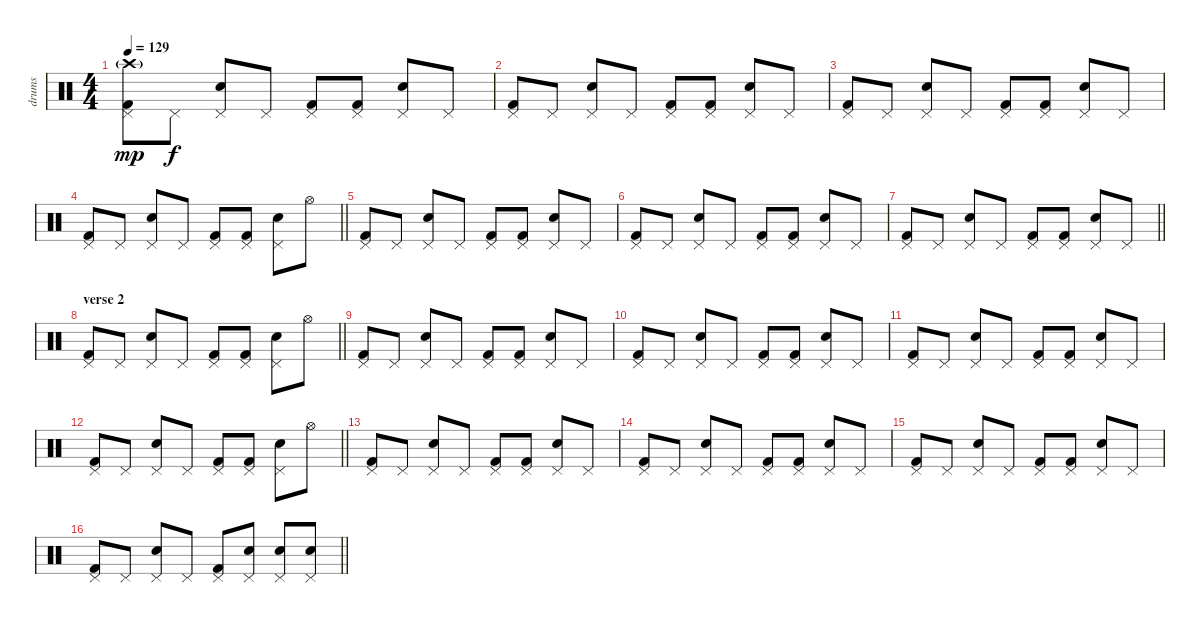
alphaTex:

\track ("drums" "drums") {instrument percussion}
\staff {score}
\articulation defaults
\ts (4 4)
\tempo 129
\clef neutral
\ks c
("Kick (hit) 2" "Pedal Hi-Hat (hit)" "Crash high (hit)"{g}).8{dy mp} "Pedal Hi-Hat (hit)".8{dy f} ("Electric Snare (hit)" "Pedal Hi-Hat (hit)").8 "Pedal Hi-Hat (hit)".8 ("Kick (hit) 2" "Pedal Hi-Hat (hit)").8 ("Kick (hit) 2" "Pedal Hi-Hat (hit)").8 ("Electric Snare (hit)" "Pedal Hi-Hat (hit)").8 "Pedal Hi-Hat (hit)".8 |
("Kick (hit) 2" "Pedal Hi-Hat (hit)").8 "Pedal Hi-Hat (hit)".8 ("Electric Snare (hit)" "Pedal Hi-Hat (hit)").8 "Pedal Hi-Hat (hit)".8 ("Kick (hit) 2" "Pedal Hi-Hat (hit)").8 ("Kick (hit) 2" "Pedal Hi-Hat (hit)").8 ("Electric Snare (hit)" "Pedal Hi-Hat (hit)").8 "Pedal Hi-Hat (hit)".8 |
("Kick (hit) 2" "Pedal Hi-Hat (hit)").8 "Pedal Hi-Hat (hit)".8 ("Electric Snare (hit)" "Pedal Hi-Hat (hit)").8 "Pedal Hi-Hat (hit)".8 ("Kick (hit) 2" "Pedal Hi-Hat (hit)").8 ("Kick (hit) 2" "Pedal Hi-Hat (hit)").8 ("Electric Snare (hit)" "Pedal Hi-Hat (hit)").8 "Pedal Hi-Hat (hit)".8 |
\barLineRight lightlight
("Kick (hit) 2" "Pedal Hi-Hat (hit)").8 "Pedal Hi-Hat (hit)".8 ("Electric Snare (hit)" "Pedal Hi-Hat (hit)").8 "Pedal Hi-Hat (hit)".8 ("Kick (hit) 2" "Pedal Hi-Hat (hit)").8 ("Kick (hit) 2" "Pedal Hi-Hat (hit)").8 ("Electric Snare (hit)" "Pedal Hi-Hat (hit)").8 "Hi-Hat (open)".8 |
("Kick (hit) 2" "Pedal Hi-Hat (hit)").8 "Pedal Hi-Hat (hit)".8 ("Electric Snare (hit)" "Pedal Hi-Hat (hit)").8 "Pedal Hi-Hat (hit)".8 ("Kick (hit) 2" "Pedal Hi-Hat (hit)").8 ("Kick (hit) 2" "Pedal Hi-Hat (hit)").8 ("Electric Snare (hit)" "Pedal Hi-Hat (hit)").8 "Pedal Hi-Hat (hit)".8 |
("Kick (hit) 2" "Pedal Hi-Hat (hit)").8 "Pedal Hi-Hat (hit)".8 ("Electric Snare (hit)" "Pedal Hi-Hat (hit)").8 "Pedal Hi-Hat (hit)".8 ("Kick (hit) 2" "Pedal Hi-Hat (hit)").8 ("Kick (hit) 2" "Pedal Hi-Hat (hit)").8 ("Electric Snare (hit)" "Pedal Hi-Hat (hit)").8 "Pedal Hi-Hat (hit)".8 |
\barLineRight lightlight
("Kick (hit) 2" "Pedal Hi-Hat (hit)").8 "Pedal Hi-Hat (hit)".8 ("Electric Snare (hit)" "Pedal Hi-Hat (hit)").8 "Pedal Hi-Hat (hit)".8 ("Kick (hit) 2" "Pedal Hi-Hat (hit)").8 ("Kick (hit) 2" "Pedal Hi-Hat (hit)").8 ("Electric Snare (hit)" "Pedal Hi-Hat (hit)").8 "Pedal Hi-Hat (hit)".8 |
\section ("" "verse 2")
\barLineRight lightlight
("Kick (hit) 2" "Pedal Hi-Hat (hit)").8 "Pedal Hi-Hat (hit)".8 ("Electric Snare (hit)" "Pedal Hi-Hat (hit)").8 "Pedal Hi-Hat (hit)".8 ("Kick (hit) 2" "Pedal Hi-Hat (hit)").8 ("Kick (hit) 2" "Pedal Hi-Hat (hit)").8 ("Electric Snare (hit)" "Pedal Hi-Hat (hit)").8 "Hi-Hat (open)".8 |
("Kick (hit) 2" "Pedal Hi-Hat (hit)").8 "Pedal Hi-Hat (hit)".8 ("Electric Snare (hit)" "Pedal Hi-Hat (hit)").8 "Pedal Hi-Hat (hit)".8 ("Kick (hit) 2" "Pedal Hi-Hat (hit)").8 ("Kick (hit) 2" "Pedal Hi-Hat (hit)").8 ("Electric Snare (hit)" "Pedal Hi-Hat (hit)").8 "Pedal Hi-Hat (hit)".8 |
("Kick (hit) 2" "Pedal Hi-Hat (hit)").8 "Pedal Hi-Hat (hit)".8 ("Electric Snare (hit)" "Pedal Hi-Hat (hit)").8 "Pedal Hi-Hat (hit)".8 ("Kick (hit) 2" "Pedal Hi-Hat (hit)").8 ("Kick (hit) 2" "Pedal Hi-Hat (hit)").8 ("Electric Snare (hit)" "Pedal Hi-Hat (hit)").8 "Pedal Hi-Hat (hit)".8 |
("Kick (hit) 2" "Pedal Hi-Hat (hit)").8 "Pedal Hi-Hat (hit)".8 ("Electric Snare (hit)" "Pedal Hi-Hat (hit)").8 "Pedal Hi-Hat (hit)".8 ("Kick (hit) 2" "Pedal Hi-Hat (hit)").8 ("Kick (hit) 2" "Pedal Hi-Hat (hit)").8 ("Electric Snare (hit)" "Pedal Hi-Hat (hit)").8 "Pedal Hi-Hat (hit)".8 |
\barLineRight lightlight
("Kick (hit) 2" "Pedal Hi-Hat (hit)").8 "Pedal Hi-Hat (hit)".8 ("Electric Snare (hit)" "Pedal Hi-Hat (hit)").8 "Pedal Hi-Hat (hit)".8 ("Kick (hit) 2" "Pedal Hi-Hat (hit)").8 ("Kick (hit) 2" "Pedal Hi-Hat (hit)").8 ("Electric Snare (hit)" "Pedal Hi-Hat (hit)").8 "Hi-Hat (open)".8 |
("Kick (hit) 2" "Pedal Hi-Hat (hit)").8 "Pedal Hi-Hat (hit)".8 ("Electric Snare (hit)" "Pedal Hi-Hat (hit)").8 "Pedal Hi-Hat (hit)".8 ("Kick (hit) 2" "Pedal Hi-Hat (hit)").8 ("Kick (hit) 2" "Pedal Hi-Hat (hit)").8 ("Electric Snare (hit)" "Pedal Hi-Hat (hit)").8 "Pedal Hi-Hat (hit)".8 |
("Kick (hit) 2" "Pedal Hi-Hat (hit)").8 "Pedal Hi-Hat (hit)".8 ("Electric Snare (hit)" "Pedal Hi-Hat (hit)").8 "Pedal Hi-Hat (hit)".8 ("Kick (hit) 2" "Pedal Hi-Hat (hit)").8 ("Kick (hit) 2" "Pedal Hi-Hat (hit)").8 ("Electric Snare (hit)" "Pedal Hi-Hat (hit)").8 "Pedal Hi-Hat (hit)".8 |
("Kick (hit) 2" "Pedal Hi-Hat (hit)").8 "Pedal Hi-Hat (hit)".8 ("Electric Snare (hit)" "Pedal Hi-Hat (hit)").8 "Pedal Hi-Hat (hit)".8 ("Kick (hit) 2" "Pedal Hi-Hat (hit)").8 ("Kick (hit) 2" "Pedal Hi-Hat (hit)").8 ("Electric Snare (hit)" "Pedal Hi-Hat (hit)").8 "Pedal Hi-Hat (hit)".8 |
\barLineRight lightlight
("Kick (hit) 2" "Pedal Hi-Hat (hit)").8 "Pedal Hi-Hat (hit)".8 ("Electric Snare (hit)" "Pedal Hi-Hat (hit)").8 "Pedal Hi-Hat (hit)".8 ("Kick (hit) 2" "Pedal Hi-Hat (hit)").8 ("Electric Snare (hit)" "Pedal Hi-Hat (hit)").8 ("Electric Snare (hit)" "Pedal Hi-Hat (hit)").8 ("Electric Snare (hit)" "Pedal Hi-Hat (hit)").8
